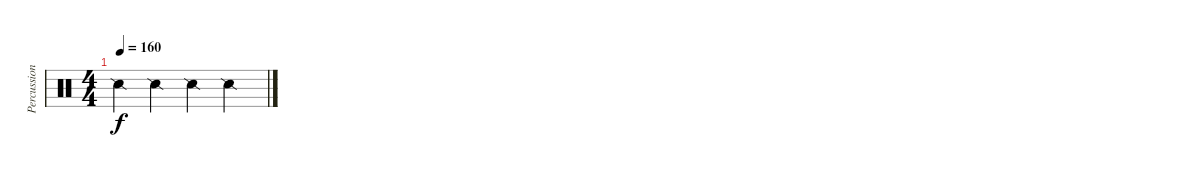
\track ("Percussion" "Percussion") {instrument percussion}
\staff {score}
\articulation defaults
\ts (4 4)
\tempo 160
\clef neutral
\ks c "Snare (side stick) 2".4{dy f} "Snare (side stick) 2".4 "Snare (side stick) 2".4 "Snare (side stick) 2".4
